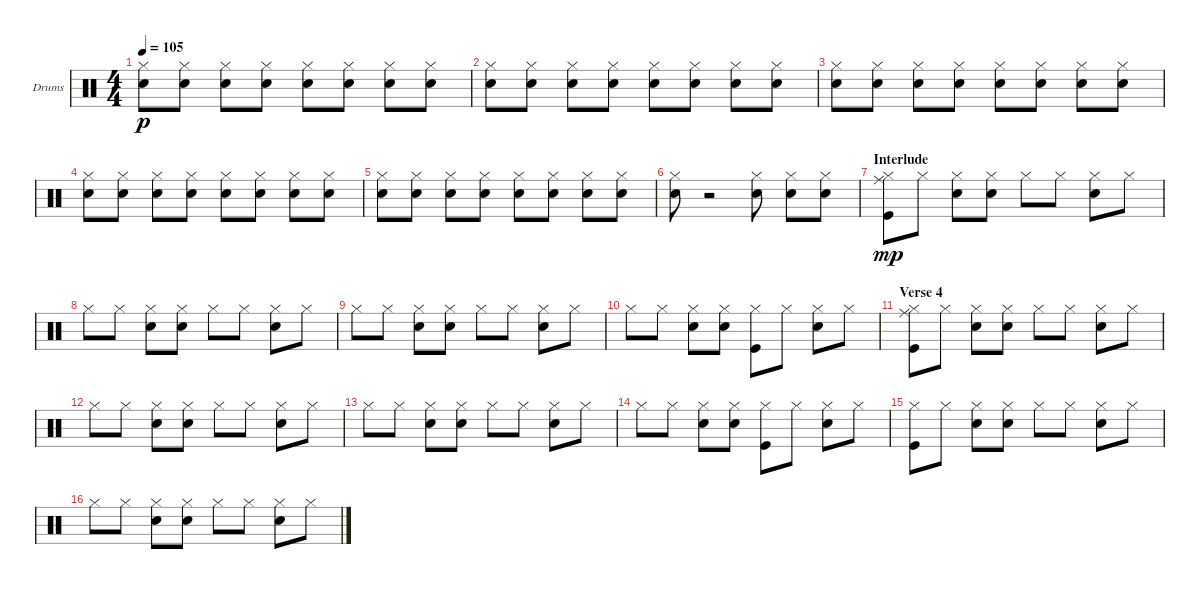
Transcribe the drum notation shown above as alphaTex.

\bracketExtendMode groupsimilarinstruments
\firstSystemTrackNameOrientation horizontal
\otherSystemsTrackNameOrientation horizontal
\track ("Drumkit" "Drums") {instrument percussion}
\staff {score}
\articulation defaults
\ts (4 4)
\tempo 105
\clef neutral
\ks c
("Snare (hit) 2" "Hi-Hat (closed)").8{dy p} ("Hi-Hat (closed)" "Snare (hit) 2").8 ("Snare (hit) 2" "Hi-Hat (closed)").8 ("Hi-Hat (closed)" "Snare (hit) 2").8 ("Snare (hit) 2" "Hi-Hat (closed)").8 ("Hi-Hat (closed)" "Snare (hit) 2").8 ("Snare (hit) 2" "Hi-Hat (closed)").8 ("Hi-Hat (closed)" "Snare (hit) 2").8 |
("Snare (hit) 2" "Hi-Hat (closed)").8 ("Hi-Hat (closed)" "Snare (hit) 2").8 ("Snare (hit) 2" "Hi-Hat (closed)").8 ("Hi-Hat (closed)" "Snare (hit) 2").8 ("Snare (hit) 2" "Hi-Hat (closed)").8 ("Hi-Hat (closed)" "Snare (hit) 2").8 ("Snare (hit) 2" "Hi-Hat (closed)").8 ("Hi-Hat (closed)" "Snare (hit) 2").8 |
("Snare (hit) 2" "Hi-Hat (closed)").8 ("Hi-Hat (closed)" "Snare (hit) 2").8 ("Snare (hit) 2" "Hi-Hat (closed)").8 ("Hi-Hat (closed)" "Snare (hit) 2").8 ("Snare (hit) 2" "Hi-Hat (closed)").8 ("Hi-Hat (closed)" "Snare (hit) 2").8 ("Snare (hit) 2" "Hi-Hat (closed)").8 ("Hi-Hat (closed)" "Snare (hit) 2").8 |
("Snare (hit) 2" "Hi-Hat (closed)").8 ("Hi-Hat (closed)" "Snare (hit) 2").8 ("Snare (hit) 2" "Hi-Hat (closed)").8 ("Hi-Hat (closed)" "Snare (hit) 2").8 ("Snare (hit) 2" "Hi-Hat (closed)").8 ("Hi-Hat (closed)" "Snare (hit) 2").8 ("Snare (hit) 2" "Hi-Hat (closed)").8 ("Hi-Hat (closed)" "Snare (hit) 2").8 |
("Snare (hit) 2" "Hi-Hat (closed)").8 ("Hi-Hat (closed)" "Snare (hit) 2").8 ("Snare (hit) 2" "Hi-Hat (closed)").8 ("Hi-Hat (closed)" "Snare (hit) 2").8 ("Snare (hit) 2" "Hi-Hat (closed)").8 ("Hi-Hat (closed)" "Snare (hit) 2").8 ("Snare (hit) 2" "Hi-Hat (closed)").8 ("Hi-Hat (closed)" "Snare (hit) 2").8 |
("Snare (hit) 2" "Hi-Hat (closed)").8 r.2 ("Hi-Hat (closed)" "Snare (hit) 2").8 ("Snare (hit) 2" "Hi-Hat (closed)").8 ("Hi-Hat (closed)" "Snare (hit) 2").8 |
\section ("" "Interlude")
("Hi-Hat (closed)" "Ride (middle)" "Kick (hit)").8{dy mp} "Hi-Hat (closed)".8 ("Snare (hit) 2" "Hi-Hat (closed)").8 ("Hi-Hat (closed)" "Snare (hit) 2").8 "Hi-Hat (closed)".8 "Hi-Hat (closed)".8 ("Snare (hit) 2" "Hi-Hat (closed)").8 "Hi-Hat (closed)".8 |
"Hi-Hat (closed)".8 "Hi-Hat (closed)".8 ("Snare (hit) 2" "Hi-Hat (closed)").8 ("Hi-Hat (closed)" "Snare (hit) 2").8 "Hi-Hat (closed)".8 "Hi-Hat (closed)".8 ("Snare (hit) 2" "Hi-Hat (closed)").8 "Hi-Hat (closed)".8 |
"Hi-Hat (closed)".8 "Hi-Hat (closed)".8 ("Snare (hit) 2" "Hi-Hat (closed)").8 ("Hi-Hat (closed)" "Snare (hit) 2").8 "Hi-Hat (closed)".8 "Hi-Hat (closed)".8 ("Snare (hit) 2" "Hi-Hat (closed)").8 "Hi-Hat (closed)".8 |
"Hi-Hat (closed)".8 "Hi-Hat (closed)".8 ("Snare (hit) 2" "Hi-Hat (closed)").8 ("Hi-Hat (closed)" "Snare (hit) 2").8 ("Hi-Hat (closed)" "Kick (hit)").8 "Hi-Hat (closed)".8 ("Snare (hit) 2" "Hi-Hat (closed)").8 "Hi-Hat (closed)".8 |
\section ("" "Verse 4")
("Hi-Hat (closed)" "Ride (middle)" "Kick (hit)").8 "Hi-Hat (closed)".8 ("Snare (hit) 2" "Hi-Hat (closed)").8 ("Hi-Hat (closed)" "Snare (hit) 2").8 "Hi-Hat (closed)".8 "Hi-Hat (closed)".8 ("Snare (hit) 2" "Hi-Hat (closed)").8 "Hi-Hat (closed)".8 |
"Hi-Hat (closed)".8 "Hi-Hat (closed)".8 ("Snare (hit) 2" "Hi-Hat (closed)").8 ("Hi-Hat (closed)" "Snare (hit) 2").8 "Hi-Hat (closed)".8 "Hi-Hat (closed)".8 ("Snare (hit) 2" "Hi-Hat (closed)").8 "Hi-Hat (closed)".8 |
"Hi-Hat (closed)".8 "Hi-Hat (closed)".8 ("Snare (hit) 2" "Hi-Hat (closed)").8 ("Hi-Hat (closed)" "Snare (hit) 2").8 "Hi-Hat (closed)".8 "Hi-Hat (closed)".8 ("Snare (hit) 2" "Hi-Hat (closed)").8 "Hi-Hat (closed)".8 |
"Hi-Hat (closed)".8 "Hi-Hat (closed)".8 ("Snare (hit) 2" "Hi-Hat (closed)").8 ("Hi-Hat (closed)" "Snare (hit) 2").8 ("Hi-Hat (closed)" "Kick (hit)").8 "Hi-Hat (closed)".8 ("Snare (hit) 2" "Hi-Hat (closed)").8 "Hi-Hat (closed)".8 |
("Hi-Hat (closed)" "Kick (hit)").8 "Hi-Hat (closed)".8 ("Snare (hit) 2" "Hi-Hat (closed)").8 ("Hi-Hat (closed)" "Snare (hit) 2").8 "Hi-Hat (closed)".8 "Hi-Hat (closed)".8 ("Snare (hit) 2" "Hi-Hat (closed)").8 "Hi-Hat (closed)".8 |
"Hi-Hat (closed)".8 "Hi-Hat (closed)".8 ("Snare (hit) 2" "Hi-Hat (closed)").8 ("Hi-Hat (closed)" "Snare (hit) 2").8 "Hi-Hat (closed)".8 "Hi-Hat (closed)".8 ("Snare (hit) 2" "Hi-Hat (closed)").8 "Hi-Hat (closed)".8
